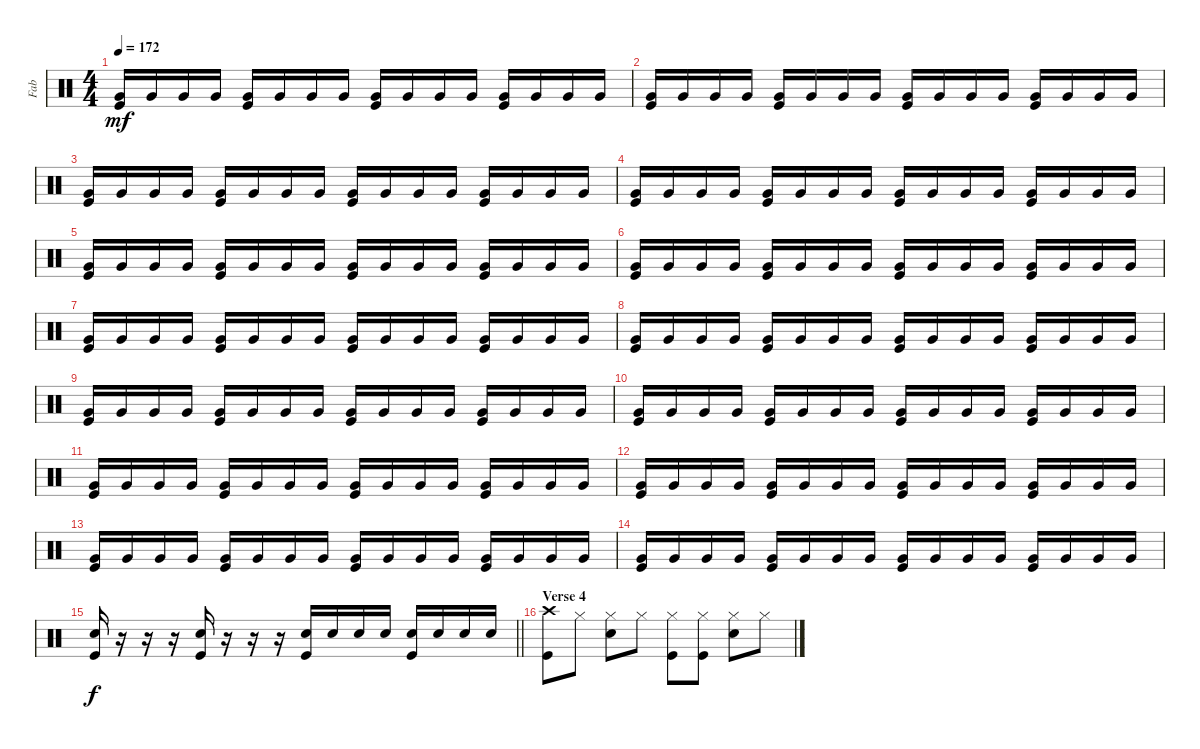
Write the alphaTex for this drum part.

\track ("Fab" "Fab") {instrument percussion}
\staff {score}
\articulation defaults
\ts (4 4)
\tempo 172
\clef neutral
\ks c
("Very Low Tom (hit)" "Kick (hit)").16{dy mf} "Very Low Tom (hit)".16 "Very Low Tom (hit)".16 "Very Low Tom (hit)".16 ("Very Low Tom (hit)" "Kick (hit)").16 "Very Low Tom (hit)".16 "Very Low Tom (hit)".16 "Very Low Tom (hit)".16 ("Very Low Tom (hit)" "Kick (hit)").16 "Very Low Tom (hit)".16 "Very Low Tom (hit)".16 "Very Low Tom (hit)".16 ("Very Low Tom (hit)" "Kick (hit)").16 "Very Low Tom (hit)".16 "Very Low Tom (hit)".16 "Very Low Tom (hit)".16 |
("Very Low Tom (hit)" "Kick (hit)").16 "Very Low Tom (hit)".16 "Very Low Tom (hit)".16 "Very Low Tom (hit)".16 ("Very Low Tom (hit)" "Kick (hit)").16 "Very Low Tom (hit)".16 "Very Low Tom (hit)".16 "Very Low Tom (hit)".16 ("Very Low Tom (hit)" "Kick (hit)").16 "Very Low Tom (hit)".16 "Very Low Tom (hit)".16 "Very Low Tom (hit)".16 ("Very Low Tom (hit)" "Kick (hit)").16 "Very Low Tom (hit)".16 "Very Low Tom (hit)".16 "Very Low Tom (hit)".16 |
("Very Low Tom (hit)" "Kick (hit)").16 "Very Low Tom (hit)".16 "Very Low Tom (hit)".16 "Very Low Tom (hit)".16 ("Very Low Tom (hit)" "Kick (hit)").16 "Very Low Tom (hit)".16 "Very Low Tom (hit)".16 "Very Low Tom (hit)".16 ("Very Low Tom (hit)" "Kick (hit)").16 "Very Low Tom (hit)".16 "Very Low Tom (hit)".16 "Very Low Tom (hit)".16 ("Very Low Tom (hit)" "Kick (hit)").16 "Very Low Tom (hit)".16 "Very Low Tom (hit)".16 "Very Low Tom (hit)".16 |
("Very Low Tom (hit)" "Kick (hit)").16 "Very Low Tom (hit)".16 "Very Low Tom (hit)".16 "Very Low Tom (hit)".16 ("Very Low Tom (hit)" "Kick (hit)").16 "Very Low Tom (hit)".16 "Very Low Tom (hit)".16 "Very Low Tom (hit)".16 ("Very Low Tom (hit)" "Kick (hit)").16 "Very Low Tom (hit)".16 "Very Low Tom (hit)".16 "Very Low Tom (hit)".16 ("Very Low Tom (hit)" "Kick (hit)").16 "Very Low Tom (hit)".16 "Very Low Tom (hit)".16 "Very Low Tom (hit)".16 |
("Very Low Tom (hit)" "Kick (hit)").16 "Very Low Tom (hit)".16 "Very Low Tom (hit)".16 "Very Low Tom (hit)".16 ("Very Low Tom (hit)" "Kick (hit)").16 "Very Low Tom (hit)".16 "Very Low Tom (hit)".16 "Very Low Tom (hit)".16 ("Very Low Tom (hit)" "Kick (hit)").16 "Very Low Tom (hit)".16 "Very Low Tom (hit)".16 "Very Low Tom (hit)".16 ("Very Low Tom (hit)" "Kick (hit)").16 "Very Low Tom (hit)".16 "Very Low Tom (hit)".16 "Very Low Tom (hit)".16 |
("Very Low Tom (hit)" "Kick (hit)").16 "Very Low Tom (hit)".16 "Very Low Tom (hit)".16 "Very Low Tom (hit)".16 ("Very Low Tom (hit)" "Kick (hit)").16 "Very Low Tom (hit)".16 "Very Low Tom (hit)".16 "Very Low Tom (hit)".16 ("Very Low Tom (hit)" "Kick (hit)").16 "Very Low Tom (hit)".16 "Very Low Tom (hit)".16 "Very Low Tom (hit)".16 ("Very Low Tom (hit)" "Kick (hit)").16 "Very Low Tom (hit)".16 "Very Low Tom (hit)".16 "Very Low Tom (hit)".16 |
("Very Low Tom (hit)" "Kick (hit)").16 "Very Low Tom (hit)".16 "Very Low Tom (hit)".16 "Very Low Tom (hit)".16 ("Very Low Tom (hit)" "Kick (hit)").16 "Very Low Tom (hit)".16 "Very Low Tom (hit)".16 "Very Low Tom (hit)".16 ("Very Low Tom (hit)" "Kick (hit)").16 "Very Low Tom (hit)".16 "Very Low Tom (hit)".16 "Very Low Tom (hit)".16 ("Very Low Tom (hit)" "Kick (hit)").16 "Very Low Tom (hit)".16 "Very Low Tom (hit)".16 "Very Low Tom (hit)".16 |
("Very Low Tom (hit)" "Kick (hit)").16 "Very Low Tom (hit)".16 "Very Low Tom (hit)".16 "Very Low Tom (hit)".16 ("Very Low Tom (hit)" "Kick (hit)").16 "Very Low Tom (hit)".16 "Very Low Tom (hit)".16 "Very Low Tom (hit)".16 ("Very Low Tom (hit)" "Kick (hit)").16 "Very Low Tom (hit)".16 "Very Low Tom (hit)".16 "Very Low Tom (hit)".16 ("Very Low Tom (hit)" "Kick (hit)").16 "Very Low Tom (hit)".16 "Very Low Tom (hit)".16 "Very Low Tom (hit)".16 |
("Very Low Tom (hit)" "Kick (hit)").16 "Very Low Tom (hit)".16 "Very Low Tom (hit)".16 "Very Low Tom (hit)".16 ("Very Low Tom (hit)" "Kick (hit)").16 "Very Low Tom (hit)".16 "Very Low Tom (hit)".16 "Very Low Tom (hit)".16 ("Very Low Tom (hit)" "Kick (hit)").16 "Very Low Tom (hit)".16 "Very Low Tom (hit)".16 "Very Low Tom (hit)".16 ("Very Low Tom (hit)" "Kick (hit)").16 "Very Low Tom (hit)".16 "Very Low Tom (hit)".16 "Very Low Tom (hit)".16 |
("Very Low Tom (hit)" "Kick (hit)").16 "Very Low Tom (hit)".16 "Very Low Tom (hit)".16 "Very Low Tom (hit)".16 ("Very Low Tom (hit)" "Kick (hit)").16 "Very Low Tom (hit)".16 "Very Low Tom (hit)".16 "Very Low Tom (hit)".16 ("Very Low Tom (hit)" "Kick (hit)").16 "Very Low Tom (hit)".16 "Very Low Tom (hit)".16 "Very Low Tom (hit)".16 ("Very Low Tom (hit)" "Kick (hit)").16 "Very Low Tom (hit)".16 "Very Low Tom (hit)".16 "Very Low Tom (hit)".16 |
("Very Low Tom (hit)" "Kick (hit)").16 "Very Low Tom (hit)".16 "Very Low Tom (hit)".16 "Very Low Tom (hit)".16 ("Very Low Tom (hit)" "Kick (hit)").16 "Very Low Tom (hit)".16 "Very Low Tom (hit)".16 "Very Low Tom (hit)".16 ("Very Low Tom (hit)" "Kick (hit)").16 "Very Low Tom (hit)".16 "Very Low Tom (hit)".16 "Very Low Tom (hit)".16 ("Very Low Tom (hit)" "Kick (hit)").16 "Very Low Tom (hit)".16 "Very Low Tom (hit)".16 "Very Low Tom (hit)".16 |
("Very Low Tom (hit)" "Kick (hit)").16 "Very Low Tom (hit)".16 "Very Low Tom (hit)".16 "Very Low Tom (hit)".16 ("Very Low Tom (hit)" "Kick (hit)").16 "Very Low Tom (hit)".16 "Very Low Tom (hit)".16 "Very Low Tom (hit)".16 ("Very Low Tom (hit)" "Kick (hit)").16 "Very Low Tom (hit)".16 "Very Low Tom (hit)".16 "Very Low Tom (hit)".16 ("Very Low Tom (hit)" "Kick (hit)").16 "Very Low Tom (hit)".16 "Very Low Tom (hit)".16 "Very Low Tom (hit)".16 |
("Very Low Tom (hit)" "Kick (hit)").16 "Very Low Tom (hit)".16 "Very Low Tom (hit)".16 "Very Low Tom (hit)".16 ("Very Low Tom (hit)" "Kick (hit)").16 "Very Low Tom (hit)".16 "Very Low Tom (hit)".16 "Very Low Tom (hit)".16 ("Very Low Tom (hit)" "Kick (hit)").16 "Very Low Tom (hit)".16 "Very Low Tom (hit)".16 "Very Low Tom (hit)".16 ("Very Low Tom (hit)" "Kick (hit)").16 "Very Low Tom (hit)".16 "Very Low Tom (hit)".16 "Very Low Tom (hit)".16 |
("Very Low Tom (hit)" "Kick (hit)").16 "Very Low Tom (hit)".16 "Very Low Tom (hit)".16 "Very Low Tom (hit)".16 ("Very Low Tom (hit)" "Kick (hit)").16 "Very Low Tom (hit)".16 "Very Low Tom (hit)".16 "Very Low Tom (hit)".16 ("Very Low Tom (hit)" "Kick (hit)").16 "Very Low Tom (hit)".16 "Very Low Tom (hit)".16 "Very Low Tom (hit)".16 ("Very Low Tom (hit)" "Kick (hit)").16 "Very Low Tom (hit)".16 "Very Low Tom (hit)".16 "Very Low Tom (hit)".16 |
\barLineRight lightlight
("Snare (hit) 2" "Kick (hit)").16{dy f} r.16 r.16 r.16 ("Snare (hit) 2" "Kick (hit)").16 r.16 r.16 r.16 ("Snare (hit) 2" "Kick (hit)").16 "Snare (hit) 2".16 "Snare (hit) 2".16 "Snare (hit) 2".16 ("Snare (hit) 2" "Kick (hit)").16 "Snare (hit) 2".16 "Snare (hit) 2".16 "Snare (hit) 2".16 |
\section ("" "Verse 4")
("Crash high (hit)" "Kick (hit)").8 "Hi-Hat (closed)".8 ("Hi-Hat (closed)" "Snare (hit) 2").8 "Hi-Hat (closed)".8 ("Hi-Hat (closed)" "Kick (hit)").8 ("Hi-Hat (closed)" "Kick (hit)").8 ("Hi-Hat (closed)" "Snare (hit) 2").8 "Hi-Hat (closed)".8
